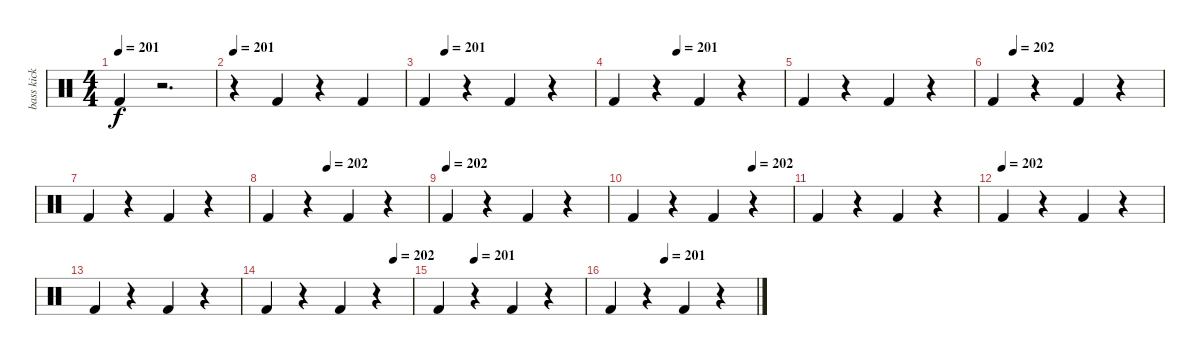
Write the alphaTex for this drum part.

\track ("bass kick" "bass kick") {instrument percussion}
\staff {score}
\articulation defaults
\ts (4 4)
\tempo 201
\clef neutral
\ks c "Kick (hit) 2".4{dy f}
r.2{d} |
\tempo 201
r.4 "Kick (hit) 2".4 r.4 "Kick (hit) 2".4 |
\tempo (201 0.125)
"Kick (hit) 2".4 r.4 "Kick (hit) 2".4 r.4 |
\tempo (201 0.375)
"Kick (hit) 2".4 r.4 "Kick (hit) 2".4 r.4 |
"Kick (hit) 2".4 r.4 "Kick (hit) 2".4 r.4 |
\tempo (202 0.125)
"Kick (hit) 2".4 r.4 "Kick (hit) 2".4 r.4 |
"Kick (hit) 2".4 r.4 "Kick (hit) 2".4 r.4 |
\tempo (202 0.375)
"Kick (hit) 2".4 r.4 "Kick (hit) 2".4 r.4 |
\tempo (202)
"Kick (hit) 2".4 r.4 "Kick (hit) 2".4 r.4 |
\tempo (202 0.75)
"Kick (hit) 2".4 r.4 "Kick (hit) 2".4 r.4 |
"Kick (hit) 2".4 r.4 "Kick (hit) 2".4 r.4 |
\tempo (202)
"Kick (hit) 2".4 r.4 "Kick (hit) 2".4 r.4 |
"Kick (hit) 2".4 r.4 "Kick (hit) 2".4 r.4 |
\tempo (202 0.875)
"Kick (hit) 2".4 r.4 "Kick (hit) 2".4 r.4 |
\tempo (201 0.25)
"Kick (hit) 2".4 r.4 "Kick (hit) 2".4 r.4 |
\tempo (201 0.375)
"Kick (hit) 2".4 r.4 "Kick (hit) 2".4 r.4
